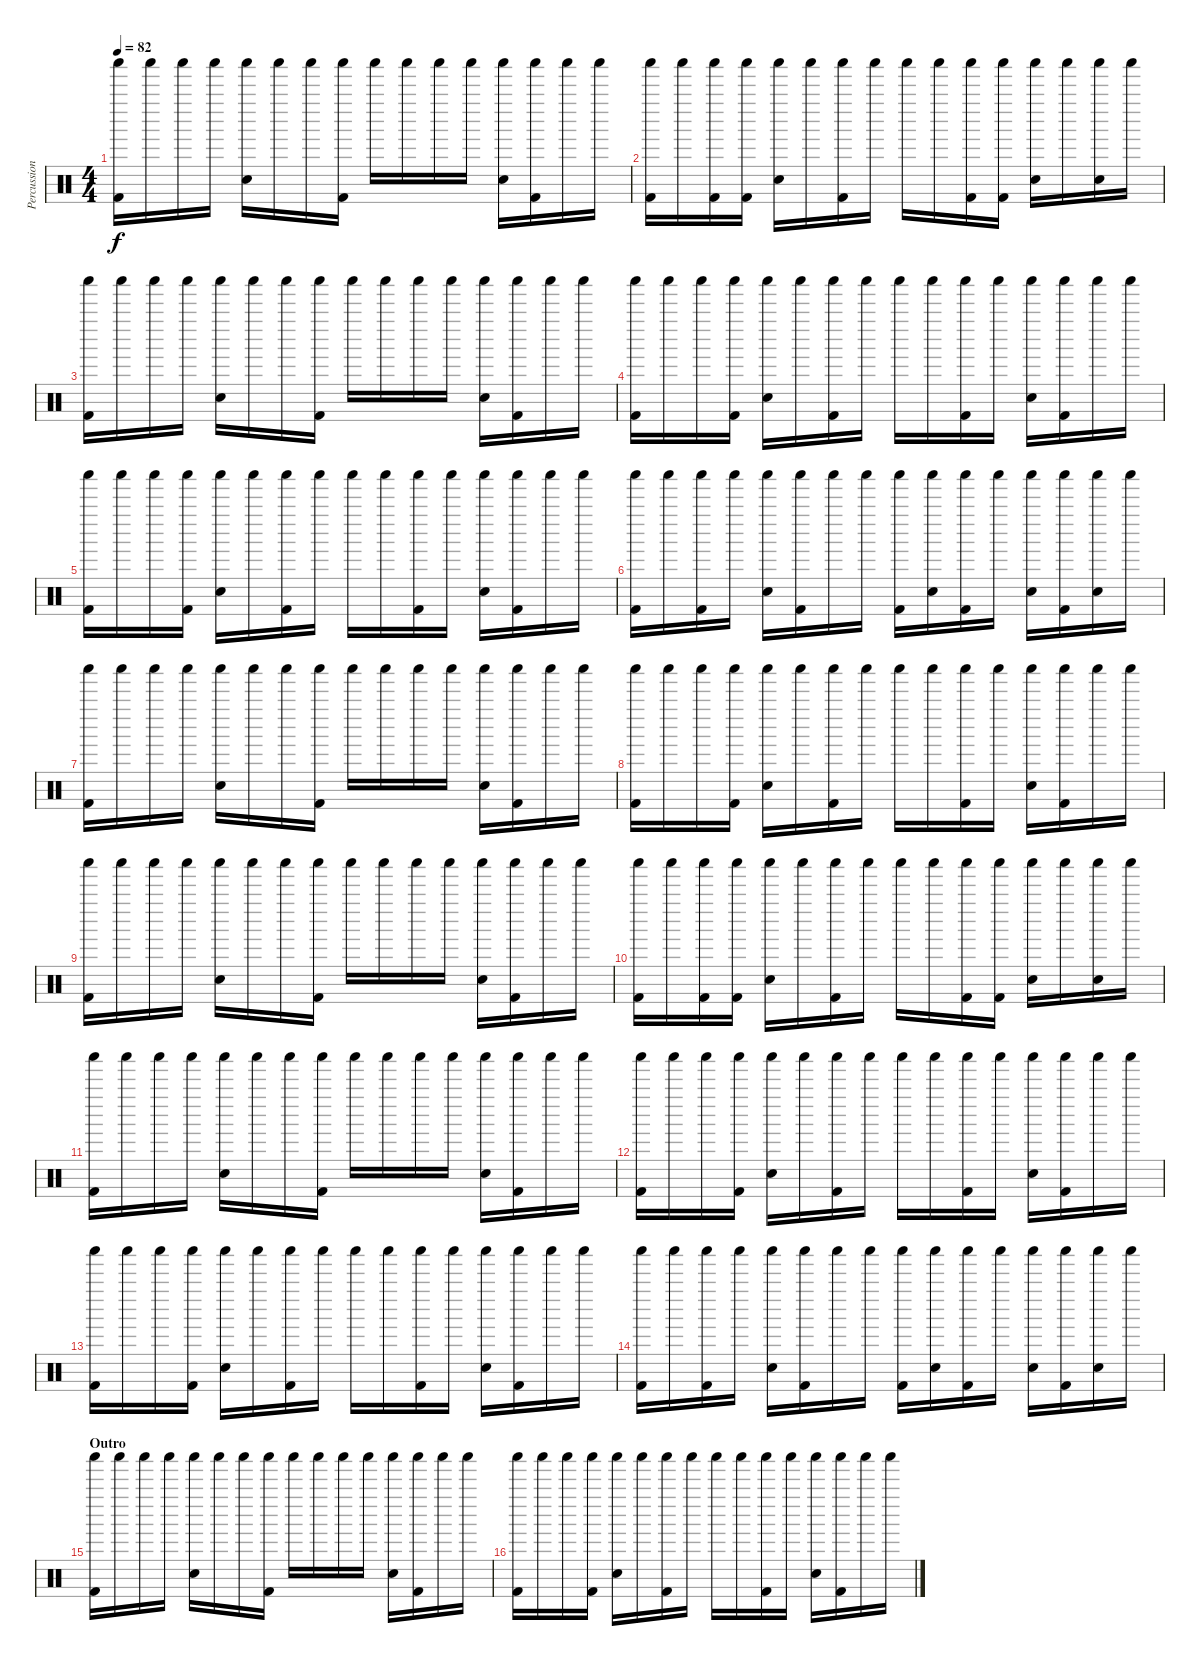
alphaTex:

\track ("Percussion" "Percussion") {instrument percussion}
\staff {score}
\articulation defaults
\ts (4 4)
\tempo 82
\clef neutral
\ks c
("Shaker (hit)" "Kick (hit) 2").16{dy f} "Shaker (hit)".16 "Shaker (hit)".16 "Shaker (hit)".16 ("Shaker (hit)" "Snare (hit) 2").16 "Shaker (hit)".16 "Shaker (hit)".16 ("Shaker (hit)" "Kick (hit) 2").16 "Shaker (hit)".16 "Shaker (hit)".16 "Shaker (hit)".16 "Shaker (hit)".16 ("Shaker (hit)" "Snare (hit) 2").16 ("Shaker (hit)" "Kick (hit) 2").16 "Shaker (hit)".16 "Shaker (hit)".16 |
("Shaker (hit)" "Kick (hit) 2").16 "Shaker (hit)".16 ("Shaker (hit)" "Kick (hit) 2").16 ("Shaker (hit)" "Kick (hit) 2").16 ("Shaker (hit)" "Snare (hit) 2").16 "Shaker (hit)".16 ("Shaker (hit)" "Kick (hit) 2").16 "Shaker (hit)".16 "Shaker (hit)".16 "Shaker (hit)".16 ("Shaker (hit)" "Kick (hit) 2").16 ("Shaker (hit)" "Kick (hit) 2").16 ("Shaker (hit)" "Snare (hit) 2").16 "Shaker (hit)".16 ("Shaker (hit)" "Snare (hit) 2").16 "Shaker (hit)".16 |
("Shaker (hit)" "Kick (hit) 2").16 "Shaker (hit)".16 "Shaker (hit)".16 "Shaker (hit)".16 ("Shaker (hit)" "Snare (hit) 2").16 "Shaker (hit)".16 "Shaker (hit)".16 ("Shaker (hit)" "Kick (hit) 2").16 "Shaker (hit)".16 "Shaker (hit)".16 "Shaker (hit)".16 "Shaker (hit)".16 ("Shaker (hit)" "Snare (hit) 2").16 ("Shaker (hit)" "Kick (hit) 2").16 "Shaker (hit)".16 "Shaker (hit)".16 |
("Shaker (hit)" "Kick (hit) 2").16 "Shaker (hit)".16 "Shaker (hit)".16 ("Shaker (hit)" "Kick (hit) 2").16 ("Shaker (hit)" "Snare (hit) 2").16 "Shaker (hit)".16 ("Shaker (hit)" "Kick (hit) 2").16 "Shaker (hit)".16 "Shaker (hit)".16 "Shaker (hit)".16 ("Shaker (hit)" "Kick (hit) 2").16 "Shaker (hit)".16 ("Shaker (hit)" "Snare (hit) 2").16 ("Shaker (hit)" "Kick (hit) 2").16 "Shaker (hit)".16 "Shaker (hit)".16 |
("Shaker (hit)" "Kick (hit) 2").16 "Shaker (hit)".16 "Shaker (hit)".16 ("Shaker (hit)" "Kick (hit) 2").16 ("Shaker (hit)" "Snare (hit) 2").16 "Shaker (hit)".16 ("Shaker (hit)" "Kick (hit) 2").16 "Shaker (hit)".16 "Shaker (hit)".16 "Shaker (hit)".16 ("Shaker (hit)" "Kick (hit) 2").16 "Shaker (hit)".16 ("Shaker (hit)" "Snare (hit) 2").16 ("Shaker (hit)" "Kick (hit) 2").16 "Shaker (hit)".16 "Shaker (hit)".16 |
("Shaker (hit)" "Kick (hit) 2").16 "Shaker (hit)".16 ("Shaker (hit)" "Kick (hit) 2").16 "Shaker (hit)".16 ("Shaker (hit)" "Snare (hit) 2").16 ("Shaker (hit)" "Kick (hit) 2").16 "Shaker (hit)".16 "Shaker (hit)".16 ("Shaker (hit)" "Kick (hit) 2").16 ("Shaker (hit)" "Snare (hit) 2").16 ("Shaker (hit)" "Kick (hit) 2").16 "Shaker (hit)".16 ("Shaker (hit)" "Snare (hit) 2").16 ("Shaker (hit)" "Kick (hit) 2").16 ("Shaker (hit)" "Snare (hit) 2").16 "Shaker (hit)".16 |
("Shaker (hit)" "Kick (hit) 2").16 "Shaker (hit)".16 "Shaker (hit)".16 "Shaker (hit)".16 ("Shaker (hit)" "Snare (hit) 2").16 "Shaker (hit)".16 "Shaker (hit)".16 ("Shaker (hit)" "Kick (hit) 2").16 "Shaker (hit)".16 "Shaker (hit)".16 "Shaker (hit)".16 "Shaker (hit)".16 ("Shaker (hit)" "Snare (hit) 2").16 ("Shaker (hit)" "Kick (hit) 2").16 "Shaker (hit)".16 "Shaker (hit)".16 |
("Shaker (hit)" "Kick (hit) 2").16 "Shaker (hit)".16 "Shaker (hit)".16 ("Shaker (hit)" "Kick (hit) 2").16 ("Shaker (hit)" "Snare (hit) 2").16 "Shaker (hit)".16 ("Shaker (hit)" "Kick (hit) 2").16 "Shaker (hit)".16 "Shaker (hit)".16 "Shaker (hit)".16 ("Shaker (hit)" "Kick (hit) 2").16 "Shaker (hit)".16 ("Shaker (hit)" "Snare (hit) 2").16 ("Shaker (hit)" "Kick (hit) 2").16 "Shaker (hit)".16 "Shaker (hit)".16 |
("Shaker (hit)" "Kick (hit) 2").16 "Shaker (hit)".16 "Shaker (hit)".16 "Shaker (hit)".16 ("Shaker (hit)" "Snare (hit) 2").16 "Shaker (hit)".16 "Shaker (hit)".16 ("Shaker (hit)" "Kick (hit) 2").16 "Shaker (hit)".16 "Shaker (hit)".16 "Shaker (hit)".16 "Shaker (hit)".16 ("Shaker (hit)" "Snare (hit) 2").16 ("Shaker (hit)" "Kick (hit) 2").16 "Shaker (hit)".16 "Shaker (hit)".16 |
("Shaker (hit)" "Kick (hit) 2").16 "Shaker (hit)".16 ("Shaker (hit)" "Kick (hit) 2").16 ("Shaker (hit)" "Kick (hit) 2").16 ("Shaker (hit)" "Snare (hit) 2").16 "Shaker (hit)".16 ("Shaker (hit)" "Kick (hit) 2").16 "Shaker (hit)".16 "Shaker (hit)".16 "Shaker (hit)".16 ("Shaker (hit)" "Kick (hit) 2").16 ("Shaker (hit)" "Kick (hit) 2").16 ("Shaker (hit)" "Snare (hit) 2").16 "Shaker (hit)".16 ("Shaker (hit)" "Snare (hit) 2").16 "Shaker (hit)".16 |
("Shaker (hit)" "Kick (hit) 2").16 "Shaker (hit)".16 "Shaker (hit)".16 "Shaker (hit)".16 ("Shaker (hit)" "Snare (hit) 2").16 "Shaker (hit)".16 "Shaker (hit)".16 ("Shaker (hit)" "Kick (hit) 2").16 "Shaker (hit)".16 "Shaker (hit)".16 "Shaker (hit)".16 "Shaker (hit)".16 ("Shaker (hit)" "Snare (hit) 2").16 ("Shaker (hit)" "Kick (hit) 2").16 "Shaker (hit)".16 "Shaker (hit)".16 |
("Shaker (hit)" "Kick (hit) 2").16 "Shaker (hit)".16 "Shaker (hit)".16 ("Shaker (hit)" "Kick (hit) 2").16 ("Shaker (hit)" "Snare (hit) 2").16 "Shaker (hit)".16 ("Shaker (hit)" "Kick (hit) 2").16 "Shaker (hit)".16 "Shaker (hit)".16 "Shaker (hit)".16 ("Shaker (hit)" "Kick (hit) 2").16 "Shaker (hit)".16 ("Shaker (hit)" "Snare (hit) 2").16 ("Shaker (hit)" "Kick (hit) 2").16 "Shaker (hit)".16 "Shaker (hit)".16 |
("Shaker (hit)" "Kick (hit) 2").16 "Shaker (hit)".16 "Shaker (hit)".16 ("Shaker (hit)" "Kick (hit) 2").16 ("Shaker (hit)" "Snare (hit) 2").16 "Shaker (hit)".16 ("Shaker (hit)" "Kick (hit) 2").16 "Shaker (hit)".16 "Shaker (hit)".16 "Shaker (hit)".16 ("Shaker (hit)" "Kick (hit) 2").16 "Shaker (hit)".16 ("Shaker (hit)" "Snare (hit) 2").16 ("Shaker (hit)" "Kick (hit) 2").16 "Shaker (hit)".16 "Shaker (hit)".16 |
("Shaker (hit)" "Kick (hit) 2").16 "Shaker (hit)".16 ("Shaker (hit)" "Kick (hit) 2").16 "Shaker (hit)".16 ("Shaker (hit)" "Snare (hit) 2").16 ("Shaker (hit)" "Kick (hit) 2").16 "Shaker (hit)".16 "Shaker (hit)".16 ("Shaker (hit)" "Kick (hit) 2").16 ("Shaker (hit)" "Snare (hit) 2").16 ("Shaker (hit)" "Kick (hit) 2").16 "Shaker (hit)".16 ("Shaker (hit)" "Snare (hit) 2").16 ("Shaker (hit)" "Kick (hit) 2").16 ("Shaker (hit)" "Snare (hit) 2").16 "Shaker (hit)".16 |
\section ("" "Outro")
("Shaker (hit)" "Kick (hit) 2").16 "Shaker (hit)".16 "Shaker (hit)".16 "Shaker (hit)".16 ("Shaker (hit)" "Snare (hit) 2").16 "Shaker (hit)".16 "Shaker (hit)".16 ("Shaker (hit)" "Kick (hit) 2").16 "Shaker (hit)".16 "Shaker (hit)".16 "Shaker (hit)".16 "Shaker (hit)".16 ("Shaker (hit)" "Snare (hit) 2").16 ("Shaker (hit)" "Kick (hit) 2").16 "Shaker (hit)".16 "Shaker (hit)".16 |
("Shaker (hit)" "Kick (hit) 2").16 "Shaker (hit)".16 "Shaker (hit)".16 ("Shaker (hit)" "Kick (hit) 2").16 ("Shaker (hit)" "Snare (hit) 2").16 "Shaker (hit)".16 ("Shaker (hit)" "Kick (hit) 2").16 "Shaker (hit)".16 "Shaker (hit)".16 "Shaker (hit)".16 ("Shaker (hit)" "Kick (hit) 2").16 "Shaker (hit)".16 ("Shaker (hit)" "Snare (hit) 2").16 ("Shaker (hit)" "Kick (hit) 2").16 "Shaker (hit)".16 "Shaker (hit)".16
